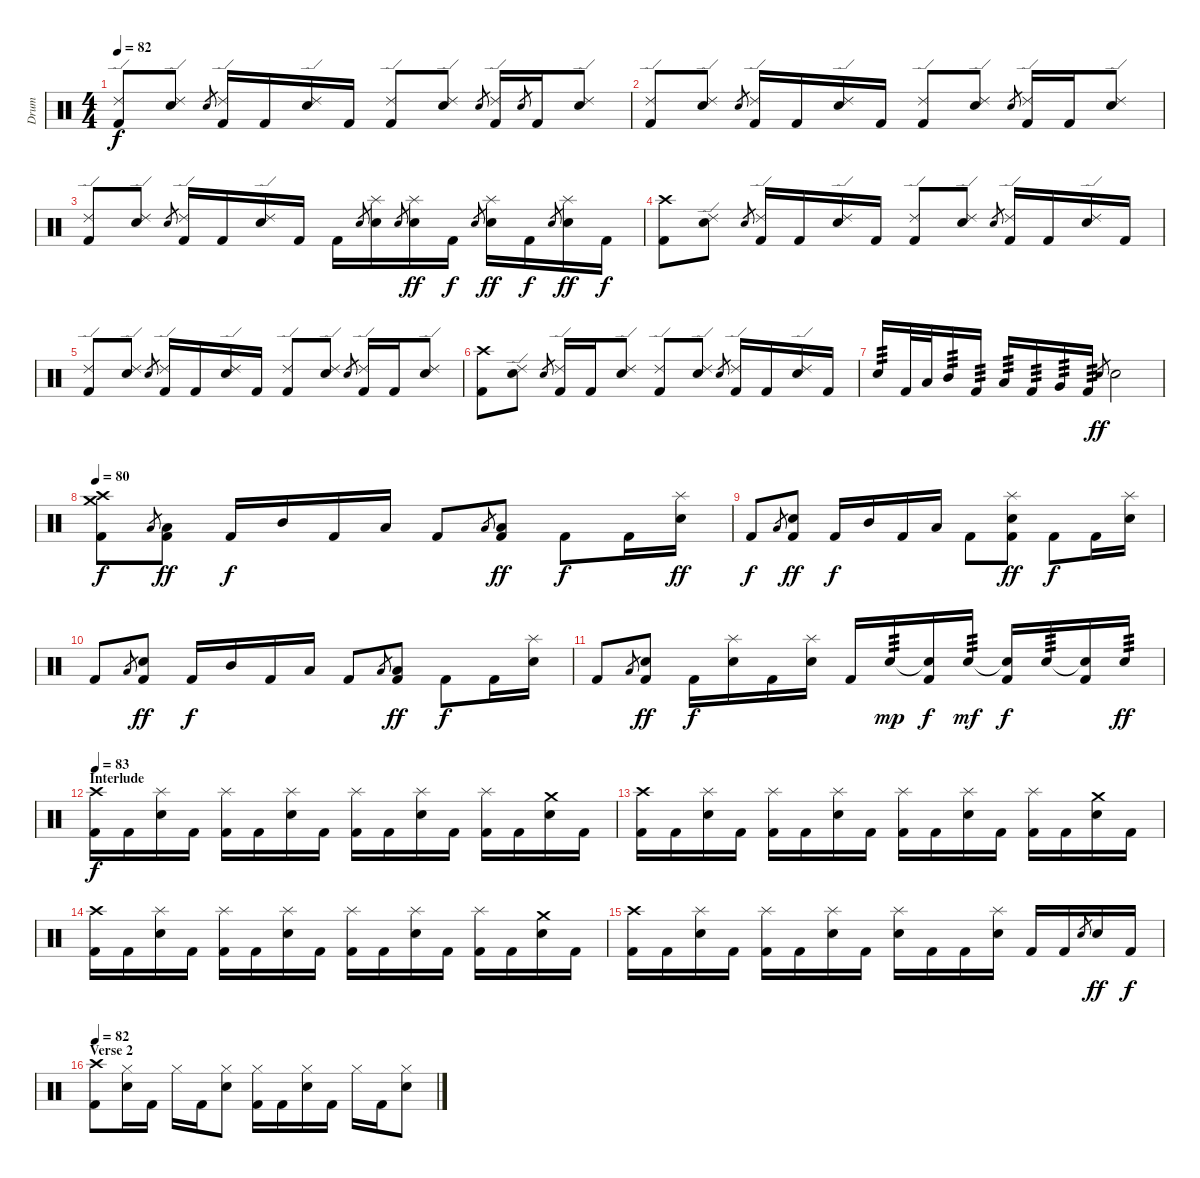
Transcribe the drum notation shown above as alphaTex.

\track ("Drum" "Drum") {instrument percussion}
\staff {score}
\articulation defaults
\ts (4 4)
\tempo 82
\clef neutral
\ks c
("Ride (edge) 2" "Kick (hit) 2").8{dy f} ("Ride (edge) 2" "Electric Snare (hit)").8 "Electric Snare (hit)".8{gr} ("Ride (edge) 2" "Kick (hit) 2").16 "Kick (hit) 2".16 ("Ride (edge) 2" "Electric Snare (hit)").16 "Kick (hit) 2".16 ("Ride (edge) 2" "Kick (hit) 2").8 ("Ride (edge) 2" "Electric Snare (hit)").8 "Electric Snare (hit)".8{gr} ("Ride (edge) 2" "Kick (hit) 2").16 "Electric Snare (hit)".8{gr} "Kick (hit) 2".16 ("Ride (edge) 2" "Electric Snare (hit)").8 |
("Ride (edge) 2" "Kick (hit) 2").8 ("Ride (edge) 2" "Electric Snare (hit)").8 "Electric Snare (hit)".8{gr} ("Ride (edge) 2" "Kick (hit) 2").16 "Kick (hit) 2".16 ("Ride (edge) 2" "Electric Snare (hit)").16 "Kick (hit) 2".16 ("Ride (edge) 2" "Kick (hit) 2").8 ("Ride (edge) 2" "Electric Snare (hit)").8 "Electric Snare (hit)".8{gr} ("Ride (edge) 2" "Kick (hit) 2").16 "Kick (hit) 2".16 ("Ride (edge) 2" "Electric Snare (hit)").8 |
("Ride (edge) 2" "Kick (hit) 2").8 ("Ride (edge) 2" "Electric Snare (hit)").8 "Electric Snare (hit)".8{gr} ("Ride (edge) 2" "Kick (hit) 2").16 "Kick (hit) 2".16 ("Ride (edge) 2" "Electric Snare (hit)").16 "Kick (hit) 2".16 "Kick (hit) 2".16 "Electric Snare (hit)".8{gr} ("Splash (hit)" "Electric Snare (hit)").16 "Electric Snare (hit)".8{gr} ("Splash (hit)" "Electric Snare (hit)").16{dy ff} "Kick (hit) 2".16{dy f} "Electric Snare (hit)".8{gr} ("Splash (hit)" "Electric Snare (hit)").16{dy ff} "Kick (hit) 2".16{dy f} "Electric Snare (hit)".8{gr} ("Splash (hit)" "Electric Snare (hit)").16{dy ff} "Kick (hit) 2".16{dy f} |
\section ("" "")
("Kick (hit) 2" "Crash high (hit)").8 ("Ride (edge) 2" "Electric Snare (hit)").8 "Electric Snare (hit)".8{gr} ("Ride (edge) 2" "Kick (hit) 2").16 "Kick (hit) 2".16 ("Ride (edge) 2" "Electric Snare (hit)").16 "Kick (hit) 2".16 ("Ride (edge) 2" "Kick (hit) 2").8 ("Ride (edge) 2" "Electric Snare (hit)").8 "Electric Snare (hit)".8{gr} ("Ride (edge) 2" "Kick (hit) 2").16 "Kick (hit) 2".16 ("Ride (edge) 2" "Electric Snare (hit)").16 "Kick (hit) 2".16 |
("Ride (edge) 2" "Kick (hit) 2").8 ("Ride (edge) 2" "Electric Snare (hit)").8 "Electric Snare (hit)".8{gr} ("Ride (edge) 2" "Kick (hit) 2").16 "Kick (hit) 2".16 ("Ride (edge) 2" "Electric Snare (hit)").16 "Kick (hit) 2".16 ("Ride (edge) 2" "Kick (hit) 2").8 ("Ride (edge) 2" "Electric Snare (hit)").8 "Electric Snare (hit)".8{gr} ("Ride (edge) 2" "Kick (hit) 2").16 "Kick (hit) 2".16 ("Ride (edge) 2" "Electric Snare (hit)").8 |
("Kick (hit) 2" "Crash high (hit)").8 ("Ride (edge) 2" "Electric Snare (hit)").8 "Electric Snare (hit)".8{gr} ("Ride (edge) 2" "Kick (hit) 2").16 "Kick (hit) 2".16 ("Ride (edge) 2" "Electric Snare (hit)").8 ("Ride (edge) 2" "Kick (hit) 2").8 ("Ride (edge) 2" "Electric Snare (hit)").8 "Electric Snare (hit)".8{gr} ("Ride (edge) 2" "Kick (hit) 2").16 "Kick (hit) 2".16 ("Ride (edge) 2" "Electric Snare (hit)").16 "Kick (hit) 2".16 |
"Electric Snare (hit)".16{tp 3} "Kick (hit) 2".32 "Low Floor Tom (hit)".32 "Mid Tom (hit)".16{tp 3} "Kick (hit) 2".16{tp 3} "Low Tom (hit)".16{tp 3} "Kick (hit) 2".16{tp 3} "Very Low Tom (hit)".16{tp 3} "Kick (hit) 2".16{tp 3} "Electric Snare (hit)".8{gr dy ff} "Electric Snare (hit)".2 |
\section ("" "")
\tempo 80
("Kick (hit) 2" "Crash high (hit)" "Crash medium (hit)").8{dy f} "Low Floor Tom (hit)".8{gr} ("Low Floor Tom (hit)" "Kick (hit) 2").8{dy ff} "Kick (hit) 2".16{dy f} "Mid Tom (hit)".16 "Kick (hit) 2".16 "Low Tom (hit)".16 "Kick (hit) 2".8 "Low Floor Tom (hit)".8{gr} ("Low Floor Tom (hit)" "Kick (hit) 2").8{dy ff} "Kick (hit) 2".8{dy f} "Kick (hit) 2".16 ("Splash (hit)" "Electric Snare (hit)").16{dy ff} |
"Kick (hit) 2".8{dy f} "Low Floor Tom (hit)".8{gr} ("Electric Snare (hit)" "Kick (hit) 2").8{dy ff} "Kick (hit) 2".16{dy f} "Mid Tom (hit)".16 "Kick (hit) 2".16 "Low Tom (hit)".16 "Kick (hit) 2".8 ("Splash (hit)" "Electric Snare (hit)" "Kick (hit) 2").8{dy ff} "Kick (hit) 2".8{dy f} "Kick (hit) 2".16 ("Splash (hit)" "Electric Snare (hit)").16 |
"Kick (hit) 2".8 "Low Floor Tom (hit)".8{gr} ("Electric Snare (hit)" "Kick (hit) 2").8{dy ff} "Kick (hit) 2".16{dy f} "Mid Tom (hit)".16 "Kick (hit) 2".16 "Low Tom (hit)".16 "Kick (hit) 2".8 "Low Floor Tom (hit)".8{gr} ("Low Floor Tom (hit)" "Kick (hit) 2").8{dy ff} "Kick (hit) 2".8{dy f} "Kick (hit) 2".16 ("Splash (hit)" "Electric Snare (hit)").16 |
"Kick (hit) 2".8 "Low Floor Tom (hit)".8{gr} ("Electric Snare (hit)" "Kick (hit) 2").8{dy ff} "Kick (hit) 2".16{dy f} ("Splash (hit)" "Electric Snare (hit)").16 "Kick (hit) 2".16 ("Splash (hit)" "Electric Snare (hit)").16 "Kick (hit) 2".16 "Electric Snare (hit)".16{tp 3 dy mp} ("Electric Snare (hit)"{t} "Kick (hit) 2").16{dy f} "Electric Snare (hit)".16{tp 3 dy mf} ("Snare (hit)"{t} "Kick (hit) 2").16{dy f} "Electric Snare (hit)".16{tp 3} ("Snare (hit)"{t} "Kick (hit) 2").16 "Electric Snare (hit)".16{tp 3 dy ff} |
\section ("" "Interlude")
\tempo 83
("Kick (hit) 2" "Crash high (hit)").16{dy f} "Kick (hit) 2".16 ("Splash (hit)" "Electric Snare (hit)").16 "Kick (hit) 2".16 ("Splash (hit)" "Kick (hit) 2").16 "Kick (hit) 2".16 ("Splash (hit)" "Electric Snare (hit)").16 "Kick (hit) 2".16 ("Splash (hit)" "Kick (hit) 2").16 "Kick (hit) 2".16 ("Splash (hit)" "Electric Snare (hit)").16 "Kick (hit) 2".16 ("Splash (hit)" "Kick (hit) 2").16 "Kick (hit) 2".16 ("Electric Snare (hit)" "Crash medium (hit)").16 "Kick (hit) 2".16 |
("Kick (hit) 2" "Crash high (hit)").16 "Kick (hit) 2".16 ("Splash (hit)" "Electric Snare (hit)").16 "Kick (hit) 2".16 ("Splash (hit)" "Kick (hit) 2").16 "Kick (hit) 2".16 ("Splash (hit)" "Electric Snare (hit)").16 "Kick (hit) 2".16 ("Splash (hit)" "Kick (hit) 2").16 "Kick (hit) 2".16 ("Splash (hit)" "Electric Snare (hit)").16 "Kick (hit) 2".16 ("Splash (hit)" "Kick (hit) 2").16 "Kick (hit) 2".16 ("Electric Snare (hit)" "Crash medium (hit)").16 "Kick (hit) 2".16 |
("Kick (hit) 2" "Crash high (hit)").16 "Kick (hit) 2".16 ("Splash (hit)" "Electric Snare (hit)").16 "Kick (hit) 2".16 ("Splash (hit)" "Kick (hit) 2").16 "Kick (hit) 2".16 ("Splash (hit)" "Electric Snare (hit)").16 "Kick (hit) 2".16 ("Splash (hit)" "Kick (hit) 2").16 "Kick (hit) 2".16 ("Splash (hit)" "Electric Snare (hit)").16 "Kick (hit) 2".16 ("Splash (hit)" "Kick (hit) 2").16 "Kick (hit) 2".16 ("Electric Snare (hit)" "Crash medium (hit)").16 "Kick (hit) 2".16 |
("Kick (hit) 2" "Crash high (hit)").16 "Kick (hit) 2".16 ("Splash (hit)" "Electric Snare (hit)").16 "Kick (hit) 2".16 ("Splash (hit)" "Kick (hit) 2").16 "Kick (hit) 2".16 ("Splash (hit)" "Electric Snare (hit)").16 "Kick (hit) 2".16 ("Splash (hit)" "Electric Snare (hit)").16 "Kick (hit) 2".16 "Kick (hit) 2".16 ("Splash (hit)" "Electric Snare (hit)").16 "Kick (hit) 2".16 "Kick (hit) 2".16 "Electric Snare (hit)".8{gr} "Electric Snare (hit)".16{dy ff} "Kick (hit) 2".16{dy f} |
\section ("" "Verse 2")
\tempo 82
("Kick (hit) 2" "Crash high (hit)").8 ("Hi-Hat (closed)" "Electric Snare (hit)").16 "Kick (hit) 2".16 "Hi-Hat (closed)".16 "Kick (hit) 2".16 ("Hi-Hat (closed)" "Electric Snare (hit)").8 ("Hi-Hat (closed)" "Kick (hit) 2").16 "Kick (hit) 2".16 ("Hi-Hat (closed)" "Electric Snare (hit)").16 "Kick (hit) 2".16 "Hi-Hat (closed)".16 "Kick (hit) 2".16 ("Hi-Hat (closed)" "Electric Snare (hit)").8
